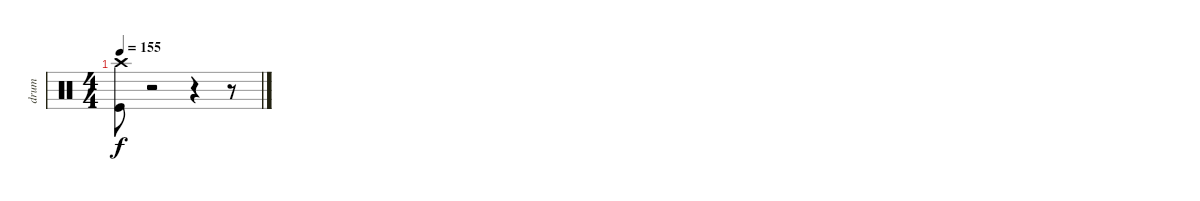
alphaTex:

\track ("drum" "drum") {instrument percussion}
\staff {score}
\articulation defaults
\ts (4 4)
\tempo 155
\clef neutral
\ks c
("Crash high (hit)" "Kick (hit)").8{dy f} r.2 r.4 r.8
